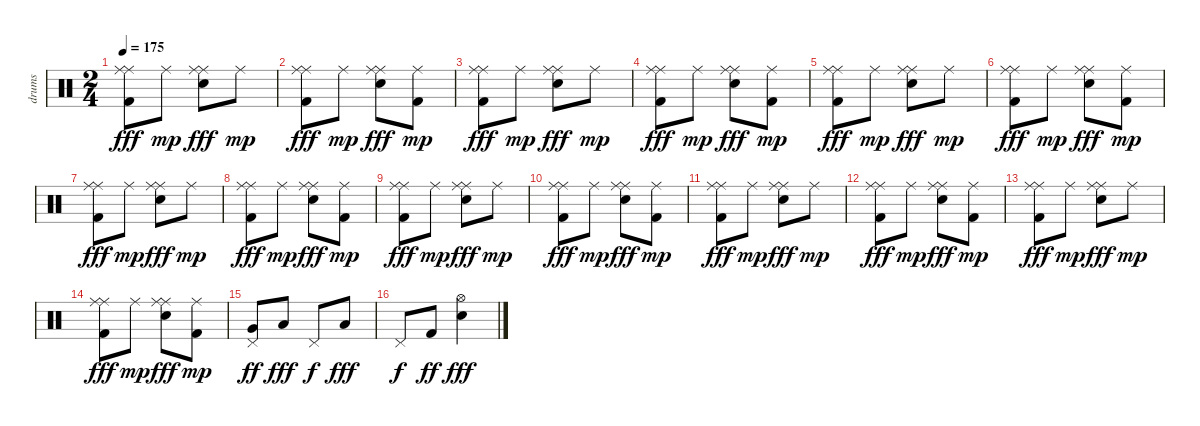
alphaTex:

\track ("drums" "drums") {instrument percussion}
\staff {score}
\articulation defaults
\ts (2 4)
\tempo 175
\clef neutral
\ks c
("Ride (middle)" "Ride (middle)" "Kick (hit) 2").8{dy fff} "Ride (middle)".8{dy mp} ("Ride (middle)" "Ride (middle)" "Snare (hit) 2").8{dy fff} "Ride (middle)".8{dy mp} |
("Ride (middle)" "Ride (middle)" "Kick (hit) 2").8{dy fff} "Ride (middle)".8{dy mp} ("Ride (middle)" "Ride (middle)" "Snare (hit) 2").8{dy fff} ("Ride (middle)" "Kick (hit) 2").8{dy mp} |
("Ride (middle)" "Ride (middle)" "Kick (hit) 2").8{dy fff} "Ride (middle)".8{dy mp} ("Ride (middle)" "Ride (middle)" "Snare (hit) 2").8{dy fff} "Ride (middle)".8{dy mp} |
("Ride (middle)" "Ride (middle)" "Kick (hit) 2").8{dy fff} "Ride (middle)".8{dy mp} ("Ride (middle)" "Ride (middle)" "Snare (hit) 2").8{dy fff} ("Ride (middle)" "Kick (hit) 2").8{dy mp} |
("Ride (middle)" "Ride (middle)" "Kick (hit) 2").8{dy fff} "Ride (middle)".8{dy mp} ("Ride (middle)" "Ride (middle)" "Snare (hit) 2").8{dy fff} "Ride (middle)".8{dy mp} |
("Ride (middle)" "Ride (middle)" "Kick (hit) 2").8{dy fff} "Ride (middle)".8{dy mp} ("Ride (middle)" "Ride (middle)" "Snare (hit) 2").8{dy fff} ("Ride (middle)" "Kick (hit) 2").8{dy mp} |
("Ride (middle)" "Ride (middle)" "Kick (hit) 2").8{dy fff} "Ride (middle)".8{dy mp} ("Ride (middle)" "Ride (middle)" "Snare (hit) 2").8{dy fff} "Ride (middle)".8{dy mp} |
("Ride (middle)" "Ride (middle)" "Kick (hit) 2").8{dy fff} "Ride (middle)".8{dy mp} ("Ride (middle)" "Ride (middle)" "Snare (hit) 2").8{dy fff} ("Ride (middle)" "Kick (hit) 2").8{dy mp} |
("Ride (middle)" "Ride (middle)" "Kick (hit) 2").8{dy fff} "Ride (middle)".8{dy mp} ("Ride (middle)" "Ride (middle)" "Snare (hit) 2").8{dy fff} "Ride (middle)".8{dy mp} |
("Ride (middle)" "Ride (middle)" "Kick (hit) 2").8{dy fff} "Ride (middle)".8{dy mp} ("Ride (middle)" "Ride (middle)" "Snare (hit) 2").8{dy fff} ("Ride (middle)" "Kick (hit) 2").8{dy mp} |
("Ride (middle)" "Ride (middle)" "Kick (hit) 2").8{dy fff} "Ride (middle)".8{dy mp} ("Ride (middle)" "Ride (middle)" "Snare (hit) 2").8{dy fff} "Ride (middle)".8{dy mp} |
("Ride (middle)" "Ride (middle)" "Kick (hit) 2").8{dy fff} "Ride (middle)".8{dy mp} ("Ride (middle)" "Ride (middle)" "Snare (hit) 2").8{dy fff} ("Ride (middle)" "Kick (hit) 2").8{dy mp} |
("Ride (middle)" "Ride (middle)" "Kick (hit) 2").8{dy fff} "Ride (middle)".8{dy mp} ("Ride (middle)" "Ride (middle)" "Snare (hit) 2").8{dy fff} "Ride (middle)".8{dy mp} |
("Ride (middle)" "Ride (middle)" "Kick (hit) 2").8{dy fff} "Ride (middle)".8{dy mp} ("Ride (middle)" "Ride (middle)" "Snare (hit) 2").8{dy fff} ("Ride (middle)" "Kick (hit) 2").8{dy mp} |
("Pedal Hi-Hat (hit)" "Very Low Tom (hit)").8{dy ff} "Low Floor Tom (hit)".8{dy fff} "Pedal Hi-Hat (hit)".8{dy f} "Low Floor Tom (hit)".8{dy fff} |
"Pedal Hi-Hat (hit)".8{dy f} "Kick (hit) 2".8{dy ff} ("Hi-Hat (open)" "Snare (hit) 2").4{dy fff}
